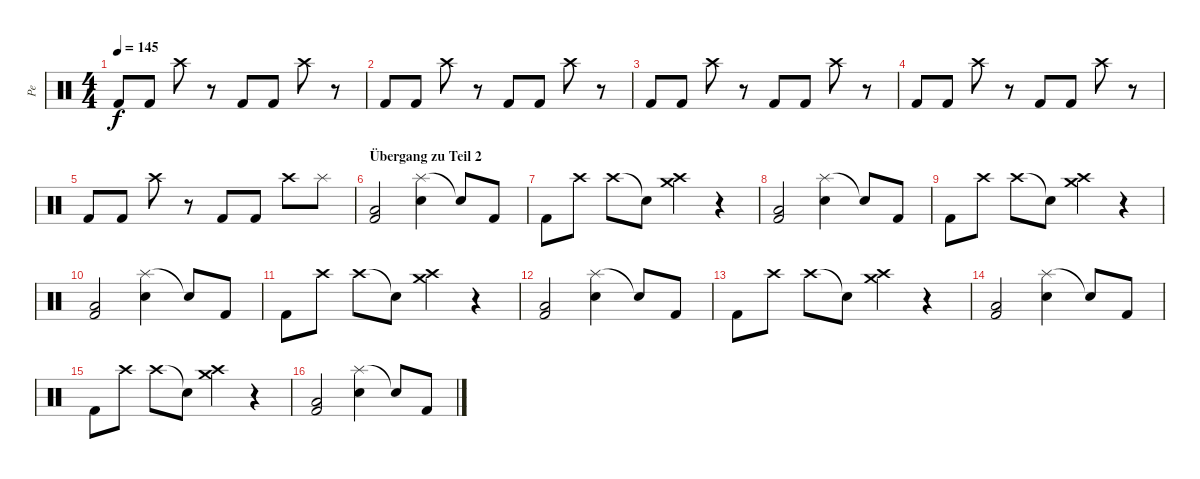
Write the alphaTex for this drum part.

\track ("Pe" "Pe") {instrument percussion}
\staff {score}
\articulation defaults
\ts (4 4)
\tempo 145
\clef neutral
\ks c "Kick (hit) 2".8{dy f} "Kick (hit) 2".8 "Crash high (hit)".8
r.8 "Kick (hit) 2".8 "Kick (hit) 2".8 "Crash high (hit)".8 r.8 |
"Kick (hit) 2".8 "Kick (hit) 2".8 "Crash high (hit)".8 r.8 "Kick (hit) 2".8 "Kick (hit) 2".8 "Crash high (hit)".8 r.8 |
"Kick (hit) 2".8 "Kick (hit) 2".8 "Crash high (hit)".8 r.8 "Kick (hit) 2".8 "Kick (hit) 2".8 "Crash high (hit)".8 r.8 |
"Kick (hit) 2".8 "Kick (hit) 2".8 "Crash high (hit)".8 r.8 "Kick (hit) 2".8 "Kick (hit) 2".8 "Crash high (hit)".8 r.8 |
"Kick (hit) 2".8 "Kick (hit) 2".8 "Crash high (hit)".8 r.8 "Kick (hit) 2".8 "Kick (hit) 2".8 "Crash high (hit)".8 "Splash (hit)".8 |
\section ("" "Übergang zu Teil 2")
("Kick (hit) 2" "Low Tom (hit)").2 ("Splash (hit)" "Snare (hit) 2").4 "Snare (hit)"{t}.8 "Kick (hit) 2".8 |
"Kick (hit) 2".8 "Crash high (hit)".8 "Crash high (hit)".8 "Snare (hit)"{t}.8 ("Crash high (hit)" "Crash medium (hit)").4 r.4 |
("Kick (hit) 2" "Low Tom (hit)").2 ("Splash (hit)" "Snare (hit) 2").4 "Snare (hit)"{t}.8 "Kick (hit) 2".8 |
"Kick (hit) 2".8 "Crash high (hit)".8 "Crash high (hit)".8 "Snare (hit)"{t}.8 ("Crash high (hit)" "Crash medium (hit)").4 r.4 |
("Kick (hit) 2" "Low Tom (hit)").2 ("Splash (hit)" "Snare (hit) 2").4 "Snare (hit)"{t}.8 "Kick (hit) 2".8 |
"Kick (hit) 2".8 "Crash high (hit)".8 "Crash high (hit)".8 "Snare (hit)"{t}.8 ("Crash high (hit)" "Crash medium (hit)").4 r.4 |
("Kick (hit) 2" "Low Tom (hit)").2 ("Splash (hit)" "Snare (hit) 2").4 "Snare (hit)"{t}.8 "Kick (hit) 2".8 |
"Kick (hit) 2".8 "Crash high (hit)".8 "Crash high (hit)".8 "Snare (hit)"{t}.8 ("Crash high (hit)" "Crash medium (hit)").4 r.4 |
("Kick (hit) 2" "Low Tom (hit)").2 ("Splash (hit)" "Snare (hit) 2").4 "Snare (hit)"{t}.8 "Kick (hit) 2".8 |
"Kick (hit) 2".8 "Crash high (hit)".8 "Crash high (hit)".8 "Snare (hit)"{t}.8 ("Crash high (hit)" "Crash medium (hit)").4 r.4 |
("Kick (hit) 2" "Low Tom (hit)").2 ("Splash (hit)" "Snare (hit) 2").4 "Snare (hit)"{t}.8 "Kick (hit) 2".8
